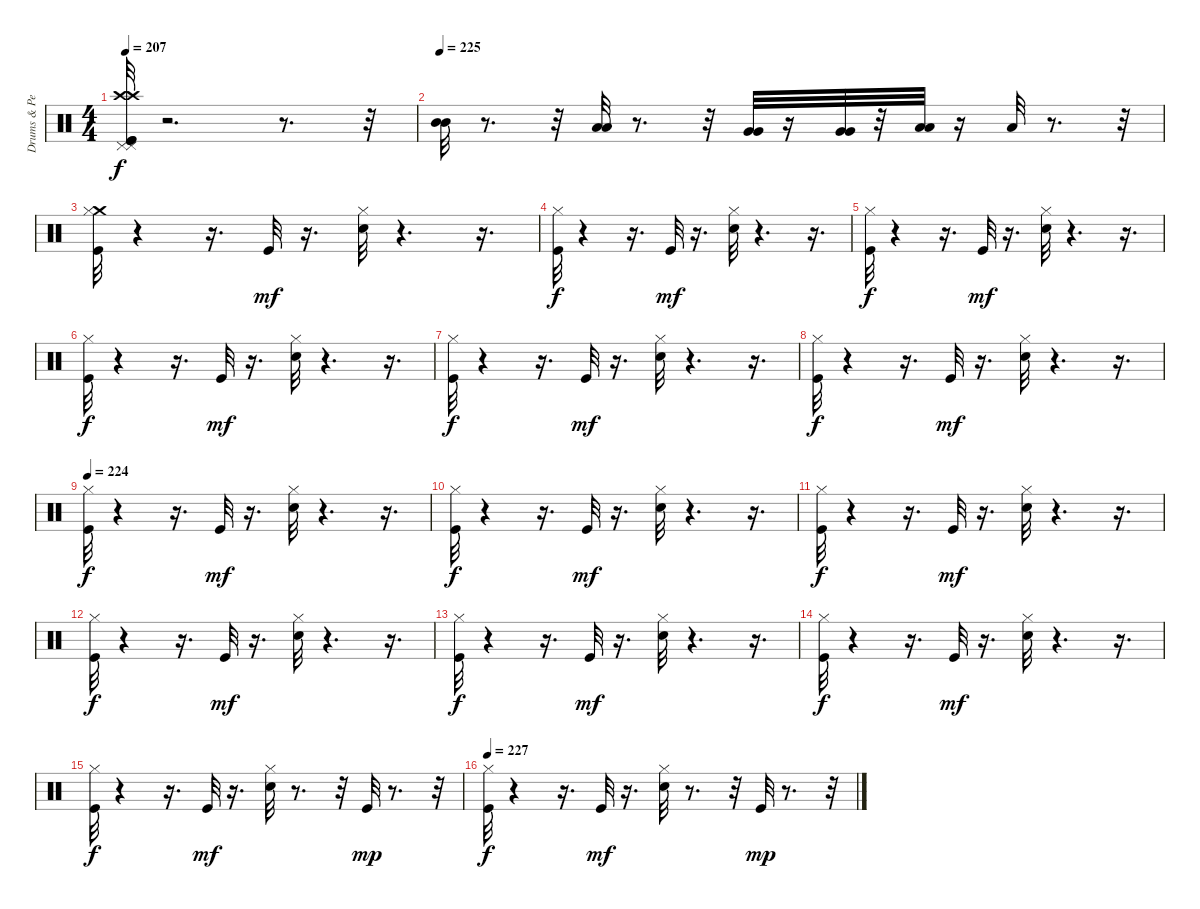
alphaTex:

\track ("Drums & Percussion" "Drums & Pe") {instrument percussion}
\staff {score}
\articulation defaults
\ts (4 4)
\tempo 207
\clef neutral
\ks c
("Kick (hit)" "Crash high (hit)" "Pedal Hi-Hat (hit)" "Kick (hit)" "Crash high (hit)" "Pedal Hi-Hat (hit)").32{dy f} r.2{d} r.8{d} r.32 |
\tempo 225
("Mid Tom (hit)" "Mid Tom (hit)").32 r.8{d} r.32 ("Low Tom (hit)" "Low Tom (hit)").32 r.8{d} r.32 ("Very Low Tom (hit)" "Very Low Tom (hit)").32 r.16 ("Very Low Tom (hit)" "Very Low Tom (hit)").32 r.32 ("Low Floor Tom (hit)" "Low Floor Tom (hit)").32 r.16 "Low Floor Tom (hit)".32 r.8{d} r.32 |
("Kick (hit)" "Crash medium (hit)" "Hi-Hat (closed)").32 r.4 r.16{d} "Kick (hit)".32{dy mf} r.16{d} ("Hi-Hat (closed)" "Snare (hit) 2").32 r.4{d} r.16{d} |
("Kick (hit)" "Hi-Hat (closed)").32{dy f} r.4 r.16{d} "Kick (hit)".32{dy mf} r.16{d} ("Hi-Hat (closed)" "Snare (hit) 2").32 r.4{d} r.16{d} |
("Kick (hit)" "Hi-Hat (closed)").32{dy f} r.4 r.16{d} "Kick (hit)".32{dy mf} r.16{d} ("Hi-Hat (closed)" "Snare (hit) 2").32 r.4{d} r.16{d} |
("Kick (hit)" "Hi-Hat (closed)").32{dy f} r.4 r.16{d} "Kick (hit)".32{dy mf} r.16{d} ("Hi-Hat (closed)" "Snare (hit) 2").32 r.4{d} r.16{d} |
("Kick (hit)" "Hi-Hat (closed)").32{dy f} r.4 r.16{d} "Kick (hit)".32{dy mf} r.16{d} ("Hi-Hat (closed)" "Snare (hit) 2").32 r.4{d} r.16{d} |
("Kick (hit)" "Hi-Hat (closed)").32{dy f} r.4 r.16{d} "Kick (hit)".32{dy mf} r.16{d} ("Hi-Hat (closed)" "Snare (hit) 2").32 r.4{d} r.16{d} |
\tempo 224
("Kick (hit)" "Hi-Hat (closed)").32{dy f} r.4 r.16{d} "Kick (hit)".32{dy mf} r.16{d} ("Hi-Hat (closed)" "Snare (hit) 2").32 r.4{d} r.16{d} |
("Kick (hit)" "Hi-Hat (closed)").32{dy f} r.4 r.16{d} "Kick (hit)".32{dy mf} r.16{d} ("Hi-Hat (closed)" "Snare (hit) 2").32 r.4{d} r.16{d} |
("Kick (hit)" "Hi-Hat (closed)").32{dy f} r.4 r.16{d} "Kick (hit)".32{dy mf} r.16{d} ("Hi-Hat (closed)" "Snare (hit) 2").32 r.4{d} r.16{d} |
("Kick (hit)" "Hi-Hat (closed)").32{dy f} r.4 r.16{d} "Kick (hit)".32{dy mf} r.16{d} ("Hi-Hat (closed)" "Snare (hit) 2").32 r.4{d} r.16{d} |
("Kick (hit)" "Hi-Hat (closed)").32{dy f} r.4 r.16{d} "Kick (hit)".32{dy mf} r.16{d} ("Hi-Hat (closed)" "Snare (hit) 2").32 r.4{d} r.16{d} |
("Kick (hit)" "Hi-Hat (closed)").32{dy f} r.4 r.16{d} "Kick (hit)".32{dy mf} r.16{d} ("Hi-Hat (closed)" "Snare (hit) 2").32 r.4{d} r.16{d} |
("Kick (hit)" "Hi-Hat (closed)").32{dy f} r.4 r.16{d} "Kick (hit)".32{dy mf} r.16{d} ("Hi-Hat (closed)" "Snare (hit) 2").32 r.8{d} r.32 "Kick (hit)".32{dy mp} r.8{d} r.32 |
\tempo 227
("Kick (hit)" "Hi-Hat (closed)").32{dy f} r.4 r.16{d} "Kick (hit)".32{dy mf} r.16{d} ("Hi-Hat (closed)" "Snare (hit) 2").32 r.8{d} r.32 "Kick (hit)".32{dy mp} r.8{d} r.32
